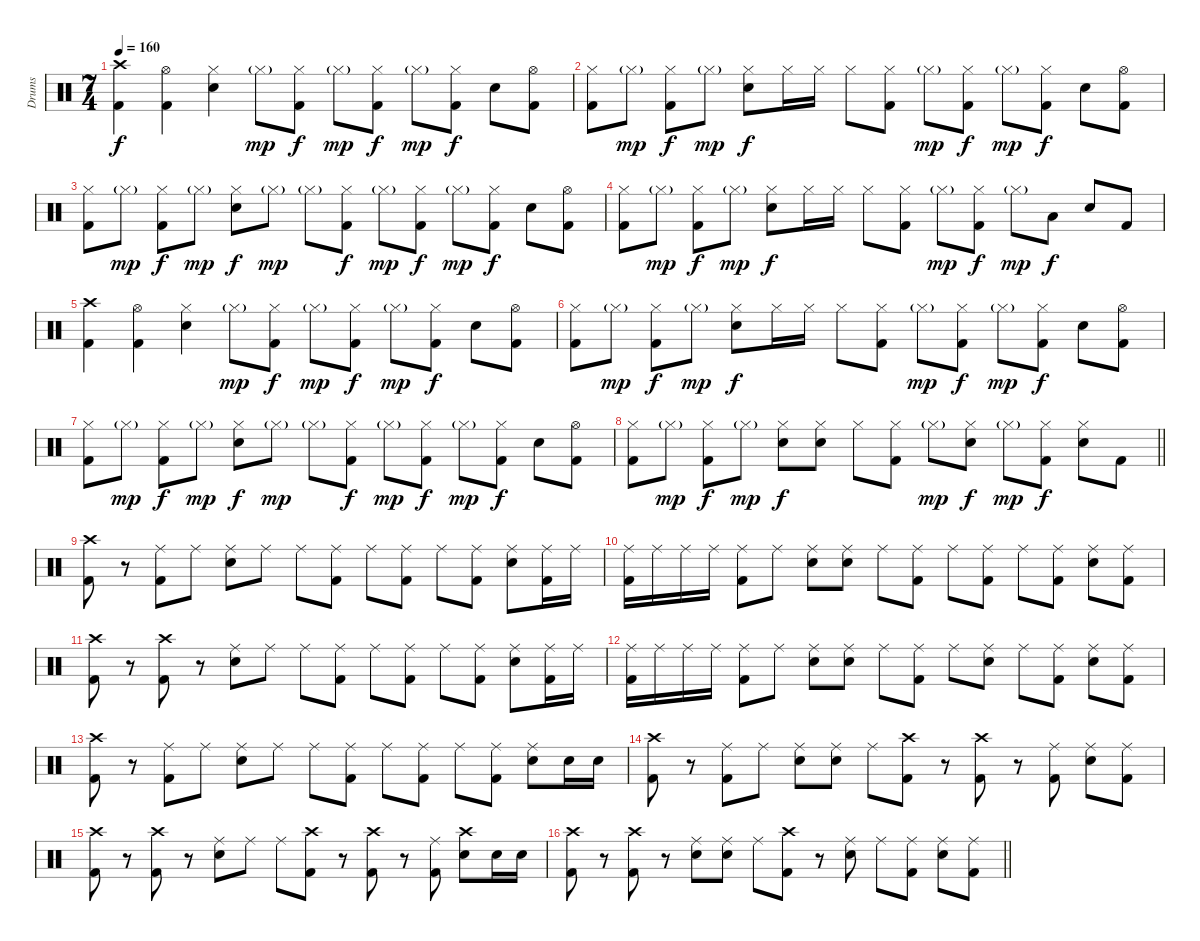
\track ("Drums" "Drums") {instrument percussion}
\staff {score}
\articulation defaults
\ts (7 4)
\section ("" "")
\tempo 160
\clef neutral
\ks c
("Crash high (hit)" "Kick (hit) 2").4{dy f} ("Hi-Hat (open)" "Kick (hit) 2").4 ("Hi-Hat (closed)" "Electric Snare (hit)").4 "Hi-Hat (closed)"{g}.8{dy mp} ("Hi-Hat (closed)" "Kick (hit) 2").8{dy f} "Hi-Hat (closed)"{g}.8{dy mp} ("Hi-Hat (closed)" "Kick (hit) 2").8{dy f} "Hi-Hat (closed)"{g}.8{dy mp} ("Hi-Hat (closed)" "Kick (hit) 2").8{dy f} "Electric Snare (hit)".8 ("Hi-Hat (open)" "Kick (hit) 2").8 |
("Hi-Hat (closed)" "Kick (hit) 2").8 "Hi-Hat (closed)"{g}.8{dy mp} ("Hi-Hat (closed)" "Kick (hit) 2").8{dy f} "Hi-Hat (closed)"{g}.8{dy mp} ("Hi-Hat (closed)" "Electric Snare (hit)").8{dy f} "Hi-Hat (closed)".16 "Hi-Hat (closed)".16 "Hi-Hat (closed)".8 ("Hi-Hat (closed)" "Kick (hit) 2").8 "Hi-Hat (closed)"{g}.8{dy mp} ("Hi-Hat (closed)" "Kick (hit) 2").8{dy f} "Hi-Hat (closed)"{g}.8{dy mp} ("Hi-Hat (closed)" "Kick (hit) 2").8{dy f} "Electric Snare (hit)".8 ("Hi-Hat (open)" "Kick (hit) 2").8 |
("Hi-Hat (closed)" "Kick (hit) 2").8 "Hi-Hat (closed)"{g}.8{dy mp} ("Hi-Hat (closed)" "Kick (hit) 2").8{dy f} "Hi-Hat (closed)"{g}.8{dy mp} ("Hi-Hat (closed)" "Electric Snare (hit)").8{dy f} "Hi-Hat (closed)"{g}.8{dy mp} "Hi-Hat (closed)"{g}.8 ("Hi-Hat (closed)" "Kick (hit) 2").8{dy f} "Hi-Hat (closed)"{g}.8{dy mp} ("Hi-Hat (closed)" "Kick (hit) 2").8{dy f} "Hi-Hat (closed)"{g}.8{dy mp} ("Hi-Hat (closed)" "Kick (hit) 2").8{dy f} "Electric Snare (hit)".8 ("Hi-Hat (open)" "Kick (hit) 2").8 |
("Hi-Hat (closed)" "Kick (hit) 2").8 "Hi-Hat (closed)"{g}.8{dy mp} ("Hi-Hat (closed)" "Kick (hit) 2").8{dy f} "Hi-Hat (closed)"{g}.8{dy mp} ("Hi-Hat (closed)" "Electric Snare (hit)").8{dy f} "Hi-Hat (closed)".16 "Hi-Hat (closed)".16 "Hi-Hat (closed)".8 ("Hi-Hat (closed)" "Kick (hit) 2").8 "Hi-Hat (closed)"{g}.8{dy mp} ("Hi-Hat (closed)" "Kick (hit) 2").8{dy f} "Hi-Hat (closed)"{g}.8{dy mp} "Low Tom (hit)".8{dy f} "Electric Snare (hit)".8 "Kick (hit) 2".8 |
("Crash high (hit)" "Kick (hit) 2").4 ("Hi-Hat (open)" "Kick (hit) 2").4 ("Hi-Hat (closed)" "Electric Snare (hit)").4 "Hi-Hat (closed)"{g}.8{dy mp} ("Hi-Hat (closed)" "Kick (hit) 2").8{dy f} "Hi-Hat (closed)"{g}.8{dy mp} ("Hi-Hat (closed)" "Kick (hit) 2").8{dy f} "Hi-Hat (closed)"{g}.8{dy mp} ("Hi-Hat (closed)" "Kick (hit) 2").8{dy f} "Electric Snare (hit)".8 ("Hi-Hat (open)" "Kick (hit) 2").8 |
("Hi-Hat (closed)" "Kick (hit) 2").8 "Hi-Hat (closed)"{g}.8{dy mp} ("Hi-Hat (closed)" "Kick (hit) 2").8{dy f} "Hi-Hat (closed)"{g}.8{dy mp} ("Hi-Hat (closed)" "Electric Snare (hit)").8{dy f} "Hi-Hat (closed)".16 "Hi-Hat (closed)".16 "Hi-Hat (closed)".8 ("Hi-Hat (closed)" "Kick (hit) 2").8 "Hi-Hat (closed)"{g}.8{dy mp} ("Hi-Hat (closed)" "Kick (hit) 2").8{dy f} "Hi-Hat (closed)"{g}.8{dy mp} ("Hi-Hat (closed)" "Kick (hit) 2").8{dy f} "Electric Snare (hit)".8 ("Hi-Hat (open)" "Kick (hit) 2").8 |
("Hi-Hat (closed)" "Kick (hit) 2").8 "Hi-Hat (closed)"{g}.8{dy mp} ("Hi-Hat (closed)" "Kick (hit) 2").8{dy f} "Hi-Hat (closed)"{g}.8{dy mp} ("Hi-Hat (closed)" "Electric Snare (hit)").8{dy f} "Hi-Hat (closed)"{g}.8{dy mp} "Hi-Hat (closed)"{g}.8 ("Hi-Hat (closed)" "Kick (hit) 2").8{dy f} "Hi-Hat (closed)"{g}.8{dy mp} ("Hi-Hat (closed)" "Kick (hit) 2").8{dy f} "Hi-Hat (closed)"{g}.8{dy mp} ("Hi-Hat (closed)" "Kick (hit) 2").8{dy f} "Electric Snare (hit)".8 ("Hi-Hat (open)" "Kick (hit) 2").8 |
\barLineRight lightlight
("Hi-Hat (closed)" "Kick (hit) 2").8 "Hi-Hat (closed)"{g}.8{dy mp} ("Hi-Hat (closed)" "Kick (hit) 2").8{dy f} "Hi-Hat (closed)"{g}.8{dy mp} ("Hi-Hat (closed)" "Electric Snare (hit)").8{dy f} ("Hi-Hat (closed)" "Electric Snare (hit)").8 "Hi-Hat (closed)".8 ("Hi-Hat (closed)" "Kick (hit) 2").8 "Hi-Hat (closed)"{g}.8{dy mp} ("Hi-Hat (closed)" "Electric Snare (hit)").8{dy f} "Hi-Hat (closed)"{g}.8{dy mp} ("Hi-Hat (closed)" "Kick (hit) 2").8{dy f} ("Hi-Hat (closed)" "Electric Snare (hit)").8 "Kick (hit) 2".8 |
\section ("" "")
("Crash high (hit)" "Kick (hit) 2").8 r.8 ("Ride (middle)" "Kick (hit) 2").8 "Ride (middle)".8 ("Ride (middle)" "Electric Snare (hit)").8 "Ride (middle)".8 "Ride (middle)".8 ("Ride (middle)" "Kick (hit) 2").8 "Ride (middle)".8 ("Ride (middle)" "Kick (hit) 2").8 "Ride (middle)".8 ("Ride (middle)" "Kick (hit) 2").8 ("Ride (middle)" "Electric Snare (hit)").8 ("Ride (middle)" "Kick (hit) 2").16 "Ride (middle)".16 |
("Ride (middle)" "Kick (hit) 2").16 "Ride (middle)".16 "Ride (middle)".16 "Ride (middle)".16 ("Ride (middle)" "Kick (hit) 2").8 "Ride (middle)".8 ("Ride (middle)" "Electric Snare (hit)").8 ("Ride (middle)" "Electric Snare (hit)").8 "Ride (middle)".8 ("Ride (middle)" "Kick (hit) 2").8 "Ride (middle)".8 ("Ride (middle)" "Kick (hit) 2").8 "Ride (middle)".8 ("Ride (middle)" "Kick (hit) 2").8 ("Ride (middle)" "Electric Snare (hit)").8 ("Ride (middle)" "Kick (hit) 2").8 |
("Crash high (hit)" "Kick (hit) 2").8 r.8 ("Crash high (hit)" "Kick (hit) 2").8 r.8 ("Ride (middle)" "Electric Snare (hit)").8 "Ride (middle)".8 "Ride (middle)".8 ("Ride (middle)" "Kick (hit) 2").8 "Ride (middle)".8 ("Ride (middle)" "Kick (hit) 2").8 "Ride (middle)".8 ("Ride (middle)" "Kick (hit) 2").8 ("Ride (middle)" "Electric Snare (hit)").8 ("Ride (middle)" "Kick (hit) 2").16 "Ride (middle)".16 |
("Ride (middle)" "Kick (hit) 2").16 "Ride (middle)".16 "Ride (middle)".16 "Ride (middle)".16 ("Ride (middle)" "Kick (hit) 2").8 "Ride (middle)".8 ("Ride (middle)" "Electric Snare (hit)").8 ("Ride (middle)" "Electric Snare (hit)").8 "Ride (middle)".8 ("Ride (middle)" "Kick (hit) 2").8 "Ride (middle)".8 ("Ride (middle)" "Electric Snare (hit)").8 "Ride (middle)".8 ("Ride (middle)" "Kick (hit) 2").8 ("Ride (middle)" "Electric Snare (hit)").8 ("Ride (middle)" "Kick (hit) 2").8 |
("Crash high (hit)" "Kick (hit) 2").8 r.8 ("Ride (middle)" "Kick (hit) 2").8 "Ride (middle)".8 ("Ride (middle)" "Electric Snare (hit)").8 "Ride (middle)".8 "Ride (middle)".8 ("Ride (middle)" "Kick (hit) 2").8 "Ride (middle)".8 ("Ride (middle)" "Kick (hit) 2").8 "Ride (middle)".8 ("Ride (middle)" "Kick (hit) 2").8 ("Ride (middle)" "Electric Snare (hit)").8 "Electric Snare (hit)".16 "Electric Snare (hit)".16 |
("Crash high (hit)" "Kick (hit) 2").8 r.8 ("Ride (middle)" "Kick (hit) 2").8 "Ride (middle)".8 ("Ride (middle)" "Electric Snare (hit)").8 ("Ride (middle)" "Electric Snare (hit)").8 "Ride (middle)".8 ("Crash high (hit)" "Kick (hit) 2").8 r.8 ("Crash high (hit)" "Kick (hit) 2").8 r.8 ("Ride (middle)" "Kick (hit) 2").8 ("Ride (middle)" "Electric Snare (hit)").8 ("Ride (middle)" "Kick (hit) 2").8 |
("Crash high (hit)" "Kick (hit) 2").8 r.8 ("Crash high (hit)" "Kick (hit) 2").8 r.8 ("Ride (middle)" "Electric Snare (hit)").8 "Ride (middle)".8 "Ride (middle)".8 ("Crash high (hit)" "Kick (hit) 2").8 r.8 ("Crash high (hit)" "Kick (hit) 2").8 r.8 ("Ride (middle)" "Kick (hit) 2").8 ("Crash high (hit)" "Electric Snare (hit)").8 "Electric Snare (hit)".16 "Electric Snare (hit)".16 |
\barLineRight lightlight
("Crash high (hit)" "Kick (hit) 2").8 r.8 ("Crash high (hit)" "Kick (hit) 2").8 r.8 ("Ride (middle)" "Electric Snare (hit)").8 ("Ride (middle)" "Electric Snare (hit)").8 "Ride (middle)".8 ("Crash high (hit)" "Kick (hit) 2").8 r.8 ("Ride (middle)" "Electric Snare (hit)").8 "Ride (middle)".8 ("Ride (middle)" "Kick (hit) 2").8 ("Ride (middle)" "Electric Snare (hit)").8 ("Ride (middle)" "Kick (hit) 2").8
